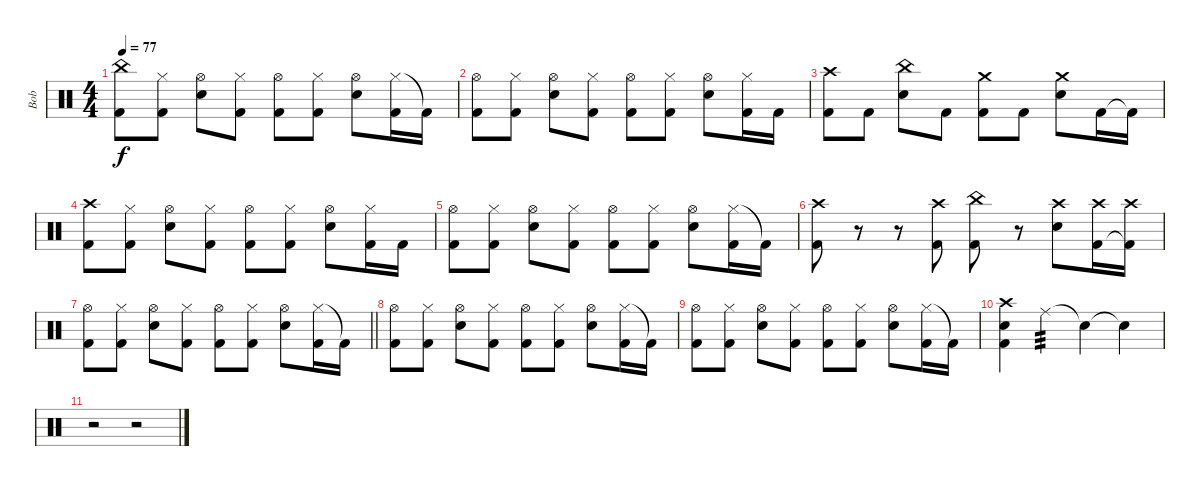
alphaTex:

\track ("Bob" "Bob") {instrument percussion}
\staff {score}
\articulation defaults
\ts (4 4)
\tempo 77
\clef neutral
\ks c
("China (hit)" "Kick (hit) 2").8{dy f} ("Hi-Hat (closed)" "Kick (hit) 2").8 ("Hi-Hat (open)" "Electric Snare (hit)").8 ("Hi-Hat (closed)" "Kick (hit) 2").8 ("Hi-Hat (open)" "Kick (hit) 2").8 ("Hi-Hat (closed)" "Kick (hit) 2").8 ("Hi-Hat (open)" "Electric Snare (hit)").8 ("Hi-Hat (closed)" "Kick (hit) 2").16 "Kick (hit) 2"{t}.16 |
("Hi-Hat (open)" "Kick (hit) 2").8 ("Hi-Hat (closed)" "Kick (hit) 2").8 ("Hi-Hat (open)" "Electric Snare (hit)").8 ("Hi-Hat (closed)" "Kick (hit) 2").8 ("Hi-Hat (open)" "Kick (hit) 2").8 ("Hi-Hat (closed)" "Kick (hit) 2").8 ("Hi-Hat (open)" "Electric Snare (hit)").8 ("Hi-Hat (closed)" "Kick (hit) 2").16 "Kick (hit) 2".16 |
("Crash high (hit)" "Kick (hit) 2").8 "Kick (hit) 2".8 ("China (hit)" "Electric Snare (hit)").8 "Kick (hit) 2".8 ("Crash medium (hit)" "Kick (hit) 2").8 "Kick (hit) 2".8 ("Crash medium (hit)" "Electric Snare (hit)").8 "Kick (hit) 2".16 "Kick (hit) 2"{t}.16 |
("Crash high (hit)" "Kick (hit) 2").8 ("Hi-Hat (closed)" "Kick (hit) 2").8 ("Hi-Hat (open)" "Electric Snare (hit)").8 ("Hi-Hat (closed)" "Kick (hit) 2").8 ("Hi-Hat (open)" "Kick (hit) 2").8 ("Hi-Hat (closed)" "Kick (hit) 2").8 ("Hi-Hat (open)" "Electric Snare (hit)").8 ("Hi-Hat (closed)" "Kick (hit) 2").16 "Kick (hit) 2".16 |
("Hi-Hat (open)" "Kick (hit) 2").8 ("Hi-Hat (closed)" "Kick (hit) 2").8 ("Hi-Hat (open)" "Electric Snare (hit)").8 ("Hi-Hat (closed)" "Kick (hit) 2").8 ("Hi-Hat (open)" "Kick (hit) 2").8 ("Hi-Hat (closed)" "Kick (hit) 2").8 ("Hi-Hat (open)" "Electric Snare (hit)").8 ("Hi-Hat (closed)" "Kick (hit) 2").16 "Kick (hit) 2"{t}.16 |
("Crash high (hit)" "Kick (hit) 2").8 r.8 r.8 ("Crash high (hit)" "Kick (hit) 2").8 ("China (hit)" "Kick (hit) 2").8 r.8 ("Crash high (hit)" "Electric Snare (hit)").8 ("Crash high (hit)" "Kick (hit) 2").16 ("Crash high (hit)" "Kick (hit) 2"{t}).16 |
\barLineRight lightlight
("Hi-Hat (open)" "Kick (hit) 2").8 ("Hi-Hat (closed)" "Kick (hit) 2").8 ("Hi-Hat (open)" "Electric Snare (hit)").8 ("Hi-Hat (closed)" "Kick (hit) 2").8 ("Hi-Hat (open)" "Kick (hit) 2").8 ("Hi-Hat (closed)" "Kick (hit) 2").8 ("Hi-Hat (open)" "Electric Snare (hit)").8 ("Hi-Hat (closed)" "Kick (hit) 2").16 "Kick (hit) 2"{t}.16 |
("Hi-Hat (open)" "Kick (hit) 2").8 ("Hi-Hat (closed)" "Kick (hit) 2").8 ("Hi-Hat (open)" "Electric Snare (hit)").8 ("Hi-Hat (closed)" "Kick (hit) 2").8 ("Hi-Hat (open)" "Kick (hit) 2").8 ("Hi-Hat (closed)" "Kick (hit) 2").8 ("Hi-Hat (open)" "Electric Snare (hit)").8 ("Hi-Hat (closed)" "Kick (hit) 2").16 "Kick (hit) 2"{t}.16 |
("Hi-Hat (open)" "Kick (hit) 2").8 ("Hi-Hat (closed)" "Kick (hit) 2").8 ("Hi-Hat (open)" "Electric Snare (hit)").8 ("Hi-Hat (closed)" "Kick (hit) 2").8 ("Hi-Hat (open)" "Kick (hit) 2").8 ("Hi-Hat (closed)" "Kick (hit) 2").8 ("Hi-Hat (open)" "Electric Snare (hit)").8 ("Hi-Hat (closed)" "Kick (hit) 2").16 "Kick (hit) 2"{t}.16 |
("Crash high (hit)" "Electric Snare (hit)" "Kick (hit) 2").4 "Ride (middle)".4{tp 3 volume 3} "Snare (hit)"{t}.4{volume 10} "Snare (hit)"{t}.4 |
r.2 r.2
